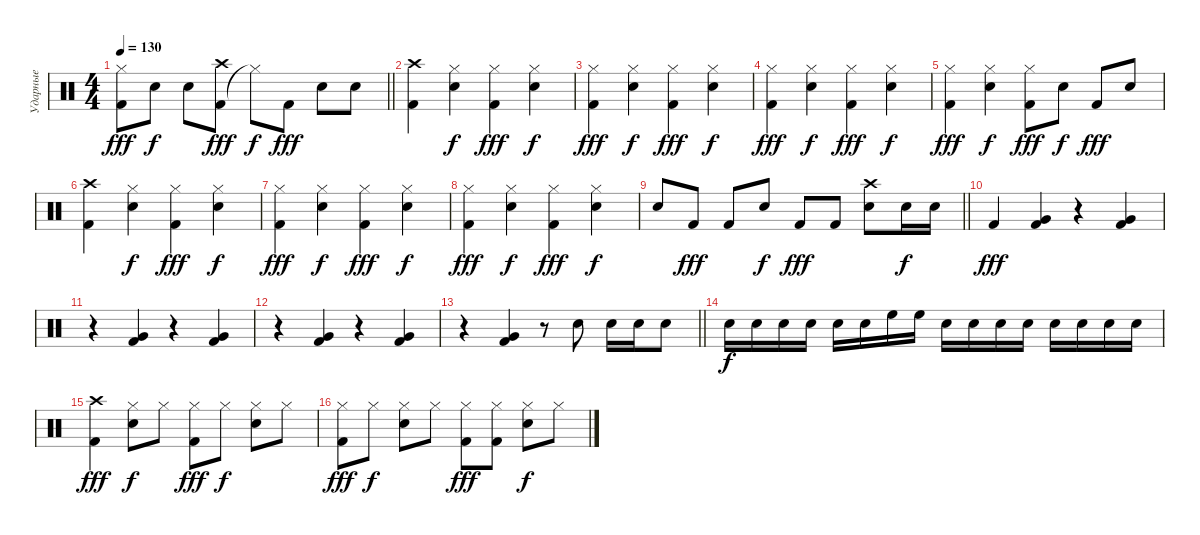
\track ("Ударные" "Ударные") {instrument percussion}
\staff {score}
\articulation defaults
\ts (4 4)
\tempo 130
\clef neutral
\barLineRight lightlight
\ks c
("Kick (hit) 2" "Hi-Hat (closed)").8{dy fff} "Snare (hit) 2".8{dy f} "Snare (hit) 2".8 ("Kick (hit) 2" "Crash high (hit)").8{dy fff} "Hi-Hat (closed)"{t}.8{dy f} "Kick (hit) 2".8{dy fff} "Snare (hit) 2".8 "Snare (hit) 2".8 |
("Kick (hit) 2" "Crash high (hit)").4 ("Snare (hit) 2" "Hi-Hat (closed)").4{dy f} ("Kick (hit) 2" "Hi-Hat (closed)").4{dy fff} ("Snare (hit) 2" "Hi-Hat (closed)").4{dy f} |
("Kick (hit) 2" "Hi-Hat (closed)").4{dy fff} ("Snare (hit) 2" "Hi-Hat (closed)").4{dy f} ("Kick (hit) 2" "Hi-Hat (closed)").4{dy fff} ("Snare (hit) 2" "Hi-Hat (closed)").4{dy f} |
("Kick (hit) 2" "Hi-Hat (closed)").4{dy fff} ("Snare (hit) 2" "Hi-Hat (closed)").4{dy f} ("Kick (hit) 2" "Hi-Hat (closed)").4{dy fff} ("Snare (hit) 2" "Hi-Hat (closed)").4{dy f} |
("Kick (hit) 2" "Hi-Hat (closed)").4{dy fff} ("Snare (hit) 2" "Hi-Hat (closed)").4{dy f} ("Kick (hit) 2" "Hi-Hat (closed)").8{dy fff} "Snare (hit) 2".8{dy f} "Kick (hit) 2".8{dy fff} "Snare (hit) 2".8 |
("Kick (hit) 2" "Crash high (hit)").4 ("Snare (hit) 2" "Hi-Hat (closed)").4{dy f} ("Kick (hit) 2" "Hi-Hat (closed)").4{dy fff} ("Snare (hit) 2" "Hi-Hat (closed)").4{dy f} |
("Kick (hit) 2" "Hi-Hat (closed)").4{dy fff} ("Snare (hit) 2" "Hi-Hat (closed)").4{dy f} ("Kick (hit) 2" "Hi-Hat (closed)").4{dy fff} ("Snare (hit) 2" "Hi-Hat (closed)").4{dy f} |
("Kick (hit) 2" "Hi-Hat (closed)").4{dy fff} ("Snare (hit) 2" "Hi-Hat (closed)").4{dy f} ("Kick (hit) 2" "Hi-Hat (closed)").4{dy fff} ("Snare (hit) 2" "Hi-Hat (closed)").4{dy f} |
\barLineRight lightlight "Snare (hit) 2".8 "Kick (hit) 2".8{dy fff} "Kick (hit) 2".8 "Snare (hit) 2".8{dy f} "Kick (hit) 2".8{dy fff} "Kick (hit) 2".8
("Snare (hit) 2" "Crash high (hit)").8 "Snare (hit) 2".16{dy f} "Snare (hit) 2".16 |
"Kick (hit) 2".4{dy fff} ("Kick (hit) 2" "Very Low Tom (hit)").4 r.4 ("Kick (hit) 2" "Very Low Tom (hit)").4 |
r.4 ("Kick (hit) 2" "Very Low Tom (hit)").4 r.4 ("Kick (hit) 2" "Very Low Tom (hit)").4 |
r.4 ("Kick (hit) 2" "Very Low Tom (hit)").4 r.4 ("Kick (hit) 2" "Very Low Tom (hit)").4 |
\barLineRight lightlight
r.4 ("Kick (hit) 2" "Very Low Tom (hit)").4 r.8 "Snare (hit) 2".8 "Snare (hit) 2".16 "Snare (hit) 2".16 "Snare (hit) 2".8 |
"Snare (hit) 2".16{dy f} "Snare (hit) 2".16 "Snare (hit) 2".16 "Snare (hit) 2".16 "Electric Snare (hit)".16 "Electric Snare (hit)".16 "High Floor Tom (hit)".16 "High Floor Tom (hit)".16 "Snare (hit) 2".16 "Snare (hit) 2".16 "Snare (hit) 2".16 "Snare (hit) 2".16 "Snare (hit) 2".16 "Electric Snare (hit)".16 "Electric Snare (hit)".16 "Electric Snare (hit)".16 |
("Kick (hit) 2" "Crash high (hit)").4{dy fff} ("Snare (hit) 2" "Hi-Hat (closed)").8{dy f} "Hi-Hat (closed)".8 ("Kick (hit) 2" "Hi-Hat (closed)").8{dy fff} "Hi-Hat (closed)".8{dy f} ("Snare (hit) 2" "Hi-Hat (closed)").8 "Hi-Hat (closed)".8 |
("Kick (hit) 2" "Hi-Hat (closed)").8{dy fff} "Hi-Hat (closed)".8{dy f} ("Snare (hit) 2" "Hi-Hat (closed)").8 "Hi-Hat (closed)".8 ("Kick (hit) 2" "Hi-Hat (closed)").8{dy fff} ("Kick (hit) 2" "Hi-Hat (closed)").8 ("Snare (hit) 2" "Hi-Hat (closed)").8{dy f} "Hi-Hat (closed)".8
